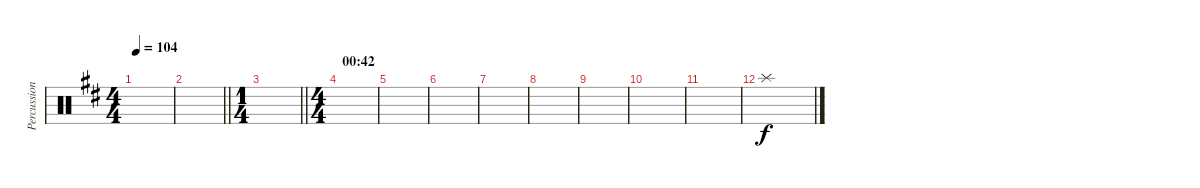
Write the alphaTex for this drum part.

\track ("Percussion" "Percussion") {instrument percussion}
\staff {score}
\articulation defaults
\ts (4 4)
\tempo 104
\clef neutral
\ks d
|
\barLineRight lightlight
|
\ts (1 4)
\barLineRight lightlight
|
\ts (4 4)
\section ("" "00:42")
|
|
|
|
|
|
|
|
"Splash (hit)".1
